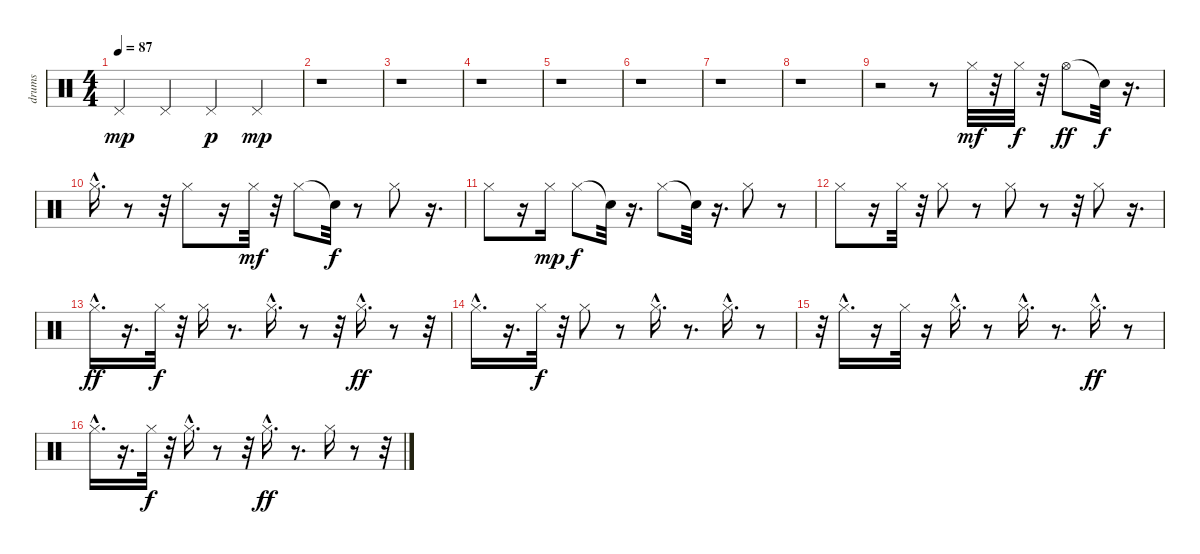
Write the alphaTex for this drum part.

\track ("drums" "drums") {instrument percussion}
\staff {score}
\articulation defaults
\ts (4 4)
\tempo 87
\clef neutral
\ks c "Pedal Hi-Hat (hit)".4{dy mp} "Pedal Hi-Hat (hit)".4 "Pedal Hi-Hat (hit)".4{dy p} "Pedal Hi-Hat (hit)".4{dy mp}
|
r.1 |
r.1 |
r.1 |
r.1 |
r.1 |
r.1 |
r.1 |
r.2 r.8 "Hi-Hat (closed)".32{dy mf} r.32 "Hi-Hat (closed)".32{dy f} r.32 "Hi-Hat (open)".8{dy ff} "Snare (hit)"{t}.32{dy f} r.16{d} |
"Hi-Hat (closed)"{hac}.16{d} r.8 r.32 "Hi-Hat (closed)".8 r.16 "Hi-Hat (closed)".32{dy mf} r.32 "Hi-Hat (closed)".8 "Snare (hit)"{t}.32{dy f} r.8 "Hi-Hat (closed)".8 r.16{d} |
"Hi-Hat (closed)".8 r.16 "Hi-Hat (closed)".16{dy mp} "Hi-Hat (closed)".8{dy f} "Snare (hit)"{t}.32 r.16{d} "Hi-Hat (closed)".8 "Snare (hit)"{t}.32 r.16{d} "Hi-Hat (closed)".8 r.8 |
"Hi-Hat (closed)".8 r.16 "Hi-Hat (closed)".32 r.32 "Hi-Hat (closed)".8 r.8 "Hi-Hat (closed)".8 r.8 r.32 "Hi-Hat (closed)".8 r.16{d} |
"Hi-Hat (closed)"{hac}.16{d dy ff} r.16{d} "Hi-Hat (closed)".32{dy f} r.32 "Hi-Hat (closed)".16 r.8{d} "Hi-Hat (closed)"{hac}.16{d} r.8 r.32 "Hi-Hat (closed)"{hac}.16{d dy ff} r.8 r.32 |
"Hi-Hat (closed)"{hac}.16{d} r.16{d} "Hi-Hat (closed)".32{dy f} r.32 "Hi-Hat (closed)".8 r.8 "Hi-Hat (closed)"{hac}.16{d} r.8{d} "Hi-Hat (closed)"{hac}.16{d} r.8 |
r.32 "Hi-Hat (closed)"{hac}.16{d} r.16 "Hi-Hat (closed)".32 r.16 "Hi-Hat (closed)"{hac}.16{d} r.8 "Hi-Hat (closed)"{hac}.16{d} r.8{d} "Hi-Hat (closed)"{hac}.16{d dy ff} r.8 |
"Hi-Hat (closed)"{hac}.16{d} r.16{d} "Hi-Hat (closed)".32{dy f} r.32 "Hi-Hat (closed)"{hac}.16{d} r.8 r.32 "Hi-Hat (closed)"{hac}.16{d dy ff} r.8{d} "Hi-Hat (closed)".16 r.8 r.32
